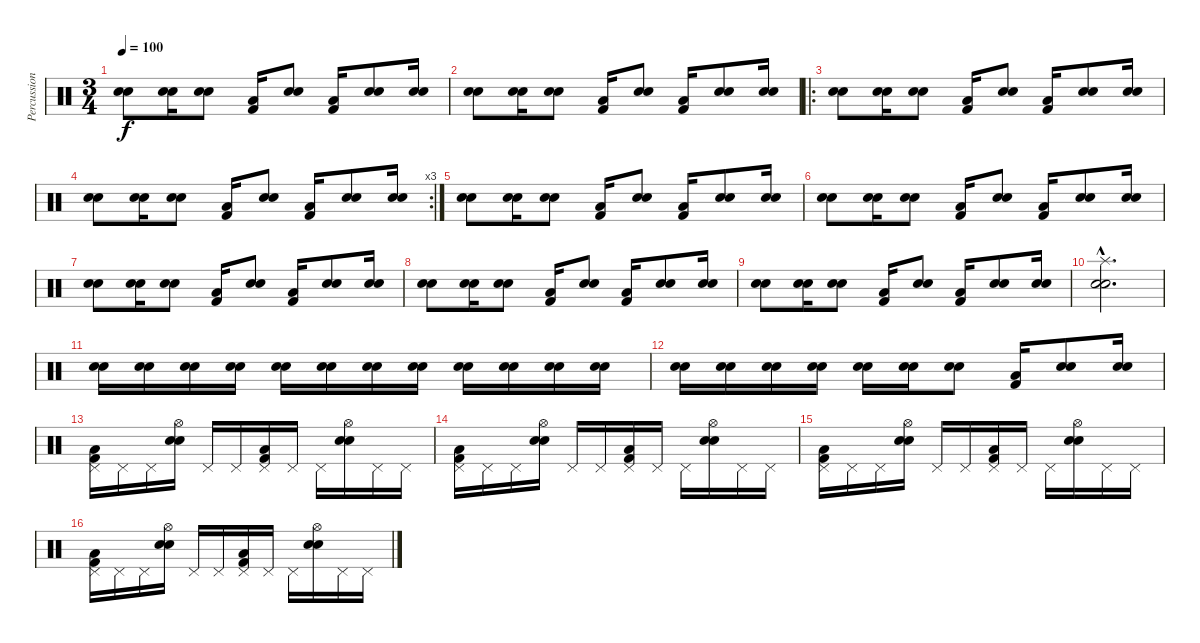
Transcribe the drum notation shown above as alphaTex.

\track ("Percussions" "Percussion") {instrument percussion}
\staff {score}
\articulation defaults
\ts (3 4)
\tempo 100
\clef neutral
\ks c
("Snare (hit) 2" "Electric Snare (hit)").8{dy f} ("Snare (hit) 2" "Electric Snare (hit)").16 ("Snare (hit) 2" "Electric Snare (hit)").8 ("Kick (hit) 2" "Low Floor Tom (hit)").16 ("Snare (hit) 2" "Electric Snare (hit)").8 ("Kick (hit) 2" "Low Floor Tom (hit)").16 ("Snare (hit) 2" "Electric Snare (hit)").8 ("Snare (hit) 2" "Electric Snare (hit)").16 |
("Snare (hit) 2" "Electric Snare (hit)").8 ("Snare (hit) 2" "Electric Snare (hit)").16 ("Snare (hit) 2" "Electric Snare (hit)").8 ("Kick (hit) 2" "Low Floor Tom (hit)").16 ("Snare (hit) 2" "Electric Snare (hit)").8 ("Kick (hit) 2" "Low Floor Tom (hit)").16 ("Snare (hit) 2" "Electric Snare (hit)").8 ("Snare (hit) 2" "Electric Snare (hit)").16 |
\ro
("Snare (hit) 2" "Electric Snare (hit)").8 ("Snare (hit) 2" "Electric Snare (hit)").16 ("Snare (hit) 2" "Electric Snare (hit)").8 ("Kick (hit) 2" "Low Floor Tom (hit)").16 ("Snare (hit) 2" "Electric Snare (hit)").8 ("Kick (hit) 2" "Low Floor Tom (hit)").16 ("Snare (hit) 2" "Electric Snare (hit)").8 ("Snare (hit) 2" "Electric Snare (hit)").16 |
\rc 3
("Snare (hit) 2" "Electric Snare (hit)").8 ("Snare (hit) 2" "Electric Snare (hit)").16 ("Snare (hit) 2" "Electric Snare (hit)").8 ("Kick (hit) 2" "Low Floor Tom (hit)").16 ("Snare (hit) 2" "Electric Snare (hit)").8 ("Kick (hit) 2" "Low Floor Tom (hit)").16 ("Snare (hit) 2" "Electric Snare (hit)").8 ("Snare (hit) 2" "Electric Snare (hit)").16 |
("Snare (hit) 2" "Electric Snare (hit)").8 ("Snare (hit) 2" "Electric Snare (hit)").16 ("Snare (hit) 2" "Electric Snare (hit)").8 ("Kick (hit) 2" "Low Floor Tom (hit)").16 ("Snare (hit) 2" "Electric Snare (hit)").8 ("Kick (hit) 2" "Low Floor Tom (hit)").16 ("Snare (hit) 2" "Electric Snare (hit)").8 ("Snare (hit) 2" "Electric Snare (hit)").16 |
("Snare (hit) 2" "Electric Snare (hit)").8 ("Snare (hit) 2" "Electric Snare (hit)").16 ("Snare (hit) 2" "Electric Snare (hit)").8 ("Kick (hit) 2" "Low Floor Tom (hit)").16 ("Snare (hit) 2" "Electric Snare (hit)").8 ("Kick (hit) 2" "Low Floor Tom (hit)").16 ("Snare (hit) 2" "Electric Snare (hit)").8 ("Snare (hit) 2" "Electric Snare (hit)").16 |
("Snare (hit) 2" "Electric Snare (hit)").8 ("Snare (hit) 2" "Electric Snare (hit)").16 ("Snare (hit) 2" "Electric Snare (hit)").8 ("Kick (hit) 2" "Low Floor Tom (hit)").16 ("Snare (hit) 2" "Electric Snare (hit)").8 ("Kick (hit) 2" "Low Floor Tom (hit)").16 ("Snare (hit) 2" "Electric Snare (hit)").8 ("Snare (hit) 2" "Electric Snare (hit)").16 |
("Snare (hit) 2" "Electric Snare (hit)").8 ("Snare (hit) 2" "Electric Snare (hit)").16 ("Snare (hit) 2" "Electric Snare (hit)").8 ("Kick (hit) 2" "Low Floor Tom (hit)").16 ("Snare (hit) 2" "Electric Snare (hit)").8 ("Kick (hit) 2" "Low Floor Tom (hit)").16 ("Snare (hit) 2" "Electric Snare (hit)").8 ("Snare (hit) 2" "Electric Snare (hit)").16 |
("Snare (hit) 2" "Electric Snare (hit)").8 ("Snare (hit) 2" "Electric Snare (hit)").16 ("Snare (hit) 2" "Electric Snare (hit)").8 ("Kick (hit) 2" "Low Floor Tom (hit)").16 ("Snare (hit) 2" "Electric Snare (hit)").8 ("Kick (hit) 2" "Low Floor Tom (hit)").16 ("Snare (hit) 2" "Electric Snare (hit)").8 ("Snare (hit) 2" "Electric Snare (hit)").16 |
("Splash (hit)"{hac} "Snare (hit) 2"{hac} "Electric Snare (hit)"{hac}).2{d} |
("Snare (hit) 2" "Electric Snare (hit)").16 ("Snare (hit) 2" "Electric Snare (hit)").16 ("Snare (hit) 2" "Electric Snare (hit)").16 ("Snare (hit) 2" "Electric Snare (hit)").16 ("Snare (hit) 2" "Electric Snare (hit)").16 ("Snare (hit) 2" "Electric Snare (hit)").16 ("Snare (hit) 2" "Electric Snare (hit)").16 ("Snare (hit) 2" "Electric Snare (hit)").16 ("Snare (hit) 2" "Electric Snare (hit)").16 ("Snare (hit) 2" "Electric Snare (hit)").16 ("Snare (hit) 2" "Electric Snare (hit)").16 ("Snare (hit) 2" "Electric Snare (hit)").16 |
("Snare (hit) 2" "Electric Snare (hit)").16 ("Snare (hit) 2" "Electric Snare (hit)").16 ("Snare (hit) 2" "Electric Snare (hit)").16 ("Snare (hit) 2" "Electric Snare (hit)").16 ("Snare (hit) 2" "Electric Snare (hit)").16 ("Snare (hit) 2" "Electric Snare (hit)").16 ("Snare (hit) 2" "Electric Snare (hit)").8 ("Kick (hit) 2" "Low Floor Tom (hit)").16 ("Snare (hit) 2" "Electric Snare (hit)").8 ("Snare (hit) 2" "Electric Snare (hit)").16 |
("Pedal Hi-Hat (hit)" "Kick (hit) 2" "Low Floor Tom (hit)").16 "Pedal Hi-Hat (hit)".16 "Pedal Hi-Hat (hit)".16 ("Hi-Hat (open)" "Snare (hit) 2" "Electric Snare (hit)").16 "Pedal Hi-Hat (hit)".16 "Pedal Hi-Hat (hit)".16 ("Pedal Hi-Hat (hit)" "Kick (hit) 2" "Low Floor Tom (hit)").16 "Pedal Hi-Hat (hit)".16 "Pedal Hi-Hat (hit)".16 ("Hi-Hat (open)" "Snare (hit) 2" "Electric Snare (hit)").16 "Pedal Hi-Hat (hit)".16 "Pedal Hi-Hat (hit)".16 |
("Pedal Hi-Hat (hit)" "Kick (hit) 2" "Low Floor Tom (hit)").16 "Pedal Hi-Hat (hit)".16 "Pedal Hi-Hat (hit)".16 ("Hi-Hat (open)" "Snare (hit) 2" "Electric Snare (hit)").16 "Pedal Hi-Hat (hit)".16 "Pedal Hi-Hat (hit)".16 ("Pedal Hi-Hat (hit)" "Kick (hit) 2" "Low Floor Tom (hit)").16 "Pedal Hi-Hat (hit)".16 "Pedal Hi-Hat (hit)".16 ("Hi-Hat (open)" "Snare (hit) 2" "Electric Snare (hit)").16 "Pedal Hi-Hat (hit)".16 "Pedal Hi-Hat (hit)".16 |
("Pedal Hi-Hat (hit)" "Kick (hit) 2" "Low Floor Tom (hit)").16 "Pedal Hi-Hat (hit)".16 "Pedal Hi-Hat (hit)".16 ("Hi-Hat (open)" "Snare (hit) 2" "Electric Snare (hit)").16 "Pedal Hi-Hat (hit)".16 "Pedal Hi-Hat (hit)".16 ("Pedal Hi-Hat (hit)" "Kick (hit) 2" "Low Floor Tom (hit)").16 "Pedal Hi-Hat (hit)".16 "Pedal Hi-Hat (hit)".16 ("Hi-Hat (open)" "Snare (hit) 2" "Electric Snare (hit)").16 "Pedal Hi-Hat (hit)".16 "Pedal Hi-Hat (hit)".16 |
("Pedal Hi-Hat (hit)" "Kick (hit) 2" "Low Floor Tom (hit)").16 "Pedal Hi-Hat (hit)".16 "Pedal Hi-Hat (hit)".16 ("Hi-Hat (open)" "Snare (hit) 2" "Electric Snare (hit)").16 "Pedal Hi-Hat (hit)".16 "Pedal Hi-Hat (hit)".16 ("Pedal Hi-Hat (hit)" "Kick (hit) 2" "Low Floor Tom (hit)").16 "Pedal Hi-Hat (hit)".16 "Pedal Hi-Hat (hit)".16 ("Hi-Hat (open)" "Snare (hit) 2" "Electric Snare (hit)").16 "Pedal Hi-Hat (hit)".16 "Pedal Hi-Hat (hit)".16
